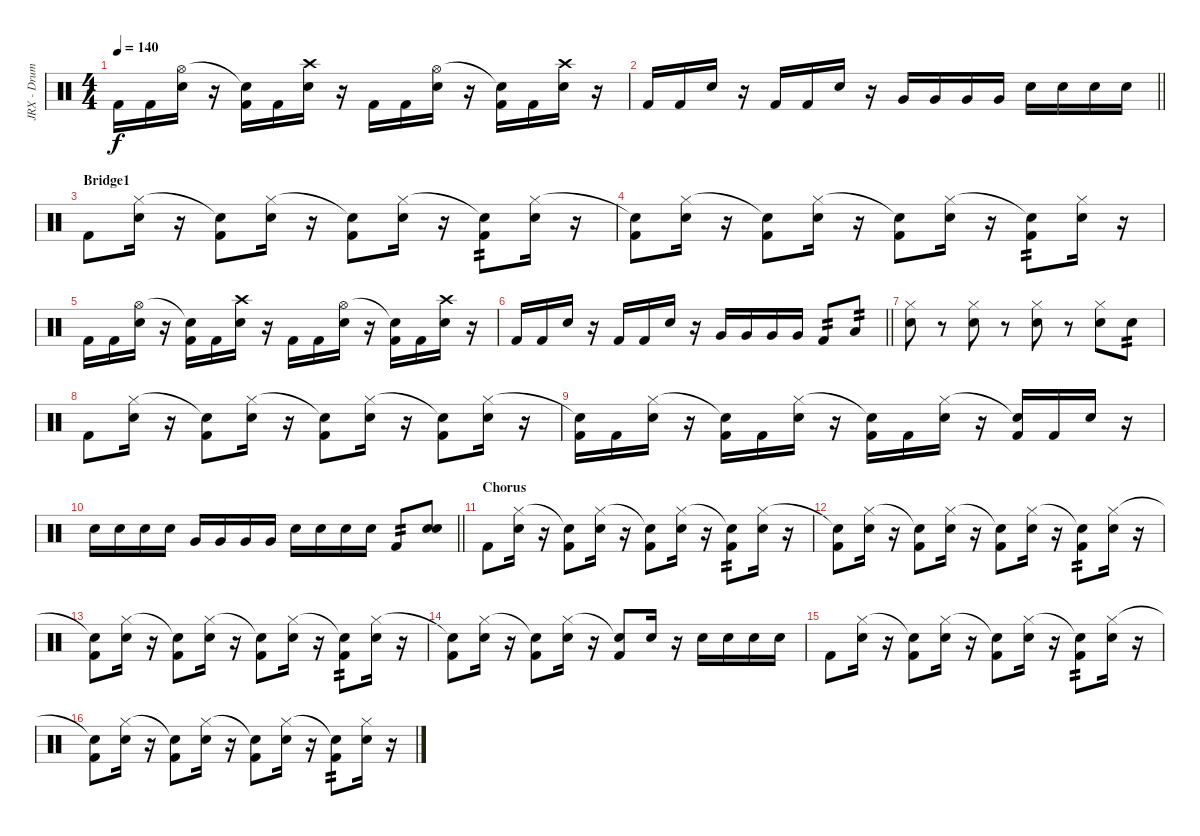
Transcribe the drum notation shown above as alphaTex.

\track ("JRX - Drum" "JRX - Drum") {instrument percussion}
\staff {score}
\articulation defaults
\ts (4 4)
\tempo 140
\clef neutral
\ks c "Kick (hit) 2".16{dy f} "Kick (hit) 2".16
("Hi-Hat (open)" "Electric Snare (hit)").16 r.16 ("Snare (hit)"{t} "Kick (hit) 2").16 "Kick (hit) 2".16 ("Electric Snare (hit)" "Crash high (hit)").16 r.16 "Kick (hit) 2".16 "Kick (hit) 2".16 ("Hi-Hat (open)" "Electric Snare (hit)").16 r.16 ("Snare (hit)"{t} "Kick (hit) 2").16 "Kick (hit) 2".16 ("Electric Snare (hit)" "Crash high (hit)").16 r.16 |
\barLineRight lightlight "Kick (hit) 2".16 "Kick (hit) 2".16 "Electric Snare (hit)".16
r.16 "Kick (hit) 2".16 "Kick (hit) 2".16 "Electric Snare (hit)".16 r.16 "Very Low Tom (hit)".16{volume 9} "Very Low Tom (hit)".16{volume 9} "Very Low Tom (hit)".16{volume 10} "Very Low Tom (hit)".16{volume 11} "Electric Snare (hit)".16{volume 12} "Electric Snare (hit)".16{volume 16} "Electric Snare (hit)".16 "Electric Snare (hit)".16 |
\section ("" "Bridge1")
"Kick (hit) 2".8 ("Hi-Hat (closed)" "Electric Snare (hit)").16 r.16 ("Snare (hit)"{t} "Kick (hit) 2").8 ("Hi-Hat (closed)" "Electric Snare (hit)").16 r.16 ("Snare (hit)"{t} "Kick (hit) 2").8 ("Hi-Hat (closed)" "Electric Snare (hit)").16 r.16 ("Snare (hit)"{t} "Kick (hit) 2").8{tp 2} ("Hi-Hat (closed)" "Electric Snare (hit)").16 r.16 |
("Snare (hit)"{t} "Kick (hit) 2").8 ("Hi-Hat (closed)" "Electric Snare (hit)").16 r.16 ("Snare (hit)"{t} "Kick (hit) 2").8 ("Hi-Hat (closed)" "Electric Snare (hit)").16 r.16 ("Snare (hit)"{t} "Kick (hit) 2").8 ("Hi-Hat (closed)" "Electric Snare (hit)").16 r.16 ("Snare (hit)"{t} "Kick (hit) 2").8{tp 2} ("Hi-Hat (closed)" "Electric Snare (hit)").16 r.16 |
"Kick (hit) 2".16 "Kick (hit) 2".16 ("Hi-Hat (open)" "Electric Snare (hit)").16 r.16 ("Snare (hit)"{t} "Kick (hit) 2").16 "Kick (hit) 2".16 ("Electric Snare (hit)" "Crash high (hit)").16 r.16 "Kick (hit) 2".16 "Kick (hit) 2".16 ("Hi-Hat (open)" "Electric Snare (hit)").16 r.16 ("Snare (hit)"{t} "Kick (hit) 2").16 "Kick (hit) 2".16 ("Electric Snare (hit)" "Crash high (hit)").16 r.16 |
\barLineRight lightlight "Kick (hit) 2".16 "Kick (hit) 2".16 "Electric Snare (hit)".16
r.16 "Kick (hit) 2".16 "Kick (hit) 2".16 "Electric Snare (hit)".16 r.16 "Very Low Tom (hit)".16 "Very Low Tom (hit)".16 "Very Low Tom (hit)".16 "Very Low Tom (hit)".16 "Kick (hit) 2".8{tp 2} "Low Floor Tom (hit)".8{tp 2} |
("Hi-Hat (closed)" "Electric Snare (hit)").8 r.8 ("Hi-Hat (closed)" "Electric Snare (hit)").8 r.8 ("Hi-Hat (closed)" "Electric Snare (hit)").8 r.8 ("Hi-Hat (closed)" "Electric Snare (hit)").8 "Electric Snare (hit)".8{tp 2} |
"Kick (hit) 2".8 ("Hi-Hat (closed)" "Electric Snare (hit)").16 r.16 ("Snare (hit)"{t} "Kick (hit) 2").8 ("Hi-Hat (closed)" "Electric Snare (hit)").16 r.16 ("Snare (hit)"{t} "Kick (hit) 2").8 ("Hi-Hat (closed)" "Electric Snare (hit)").16 r.16 ("Snare (hit)"{t} "Kick (hit) 2").8 ("Hi-Hat (closed)" "Electric Snare (hit)").16 r.16 |
("Snare (hit)"{t} "Kick (hit) 2").16 "Kick (hit) 2".16 ("Hi-Hat (closed)" "Electric Snare (hit)").16 r.16 ("Snare (hit)"{t} "Kick (hit) 2").16 "Kick (hit) 2".16 ("Hi-Hat (closed)" "Electric Snare (hit)").16 r.16 ("Snare (hit)"{t} "Kick (hit) 2").16 "Kick (hit) 2".16 ("Hi-Hat (closed)" "Electric Snare (hit)").16 r.16 ("Snare (hit)"{t} "Kick (hit) 2").16 "Kick (hit) 2".16 "Electric Snare (hit)".16 r.16 |
\barLineRight lightlight "Electric Snare (hit)".16 "Electric Snare (hit)".16 "Electric Snare (hit)".16 "Electric Snare (hit)".16 "Very Low Tom (hit)".16 "Very Low Tom (hit)".16 "Very Low Tom (hit)".16 "Very Low Tom (hit)".16 "Electric Snare (hit)".16 "Electric Snare (hit)".16 "Electric Snare (hit)".16 "Electric Snare (hit)".16 "Kick (hit) 2".8{tp 2}
("Electric Snare (hit)" "Electric Snare (hit)").8 |
\section ("" "Chorus")
"Kick (hit) 2".8 ("Hi-Hat (closed)" "Electric Snare (hit)").16 r.16 ("Snare (hit)"{t} "Kick (hit) 2").8 ("Hi-Hat (closed)" "Electric Snare (hit)").16 r.16 ("Snare (hit)"{t} "Kick (hit) 2").8 ("Hi-Hat (closed)" "Electric Snare (hit)").16 r.16 ("Snare (hit)"{t} "Kick (hit) 2").8{tp 2} ("Hi-Hat (closed)" "Electric Snare (hit)").16 r.16 |
("Snare (hit)"{t} "Kick (hit) 2").8 ("Hi-Hat (closed)" "Electric Snare (hit)").16 r.16 ("Snare (hit)"{t} "Kick (hit) 2").8 ("Hi-Hat (closed)" "Electric Snare (hit)").16 r.16 ("Snare (hit)"{t} "Kick (hit) 2").8 ("Hi-Hat (closed)" "Electric Snare (hit)").16 r.16 ("Snare (hit)"{t} "Kick (hit) 2").8{tp 2} ("Hi-Hat (closed)" "Electric Snare (hit)").16 r.16 |
("Snare (hit)"{t} "Kick (hit) 2").8 ("Hi-Hat (closed)" "Electric Snare (hit)").16 r.16 ("Snare (hit)"{t} "Kick (hit) 2").8 ("Hi-Hat (closed)" "Electric Snare (hit)").16 r.16 ("Snare (hit)"{t} "Kick (hit) 2").8 ("Hi-Hat (closed)" "Electric Snare (hit)").16 r.16 ("Snare (hit)"{t} "Kick (hit) 2").8{tp 2} ("Hi-Hat (closed)" "Electric Snare (hit)").16 r.16 |
("Snare (hit)"{t} "Kick (hit) 2").8 ("Hi-Hat (closed)" "Electric Snare (hit)").16 r.16 ("Snare (hit)"{t} "Kick (hit) 2").8 ("Hi-Hat (closed)" "Electric Snare (hit)").16 r.16 ("Snare (hit)"{t} "Kick (hit) 2").8 "Electric Snare (hit)".16 r.16 "Electric Snare (hit)".16 "Electric Snare (hit)".16 "Electric Snare (hit)".16 "Electric Snare (hit)".16 |
"Kick (hit) 2".8 ("Hi-Hat (closed)" "Electric Snare (hit)").16 r.16 ("Snare (hit)"{t} "Kick (hit) 2").8 ("Hi-Hat (closed)" "Electric Snare (hit)").16 r.16 ("Snare (hit)"{t} "Kick (hit) 2").8 ("Hi-Hat (closed)" "Electric Snare (hit)").16 r.16 ("Snare (hit)"{t} "Kick (hit) 2").8{tp 2} ("Hi-Hat (closed)" "Electric Snare (hit)").16 r.16 |
("Snare (hit)"{t} "Kick (hit) 2").8 ("Hi-Hat (closed)" "Electric Snare (hit)").16 r.16 ("Snare (hit)"{t} "Kick (hit) 2").8 ("Hi-Hat (closed)" "Electric Snare (hit)").16 r.16 ("Snare (hit)"{t} "Kick (hit) 2").8 ("Hi-Hat (closed)" "Electric Snare (hit)").16 r.16 ("Snare (hit)"{t} "Kick (hit) 2").8{tp 2} ("Hi-Hat (closed)" "Electric Snare (hit)").16 r.16
